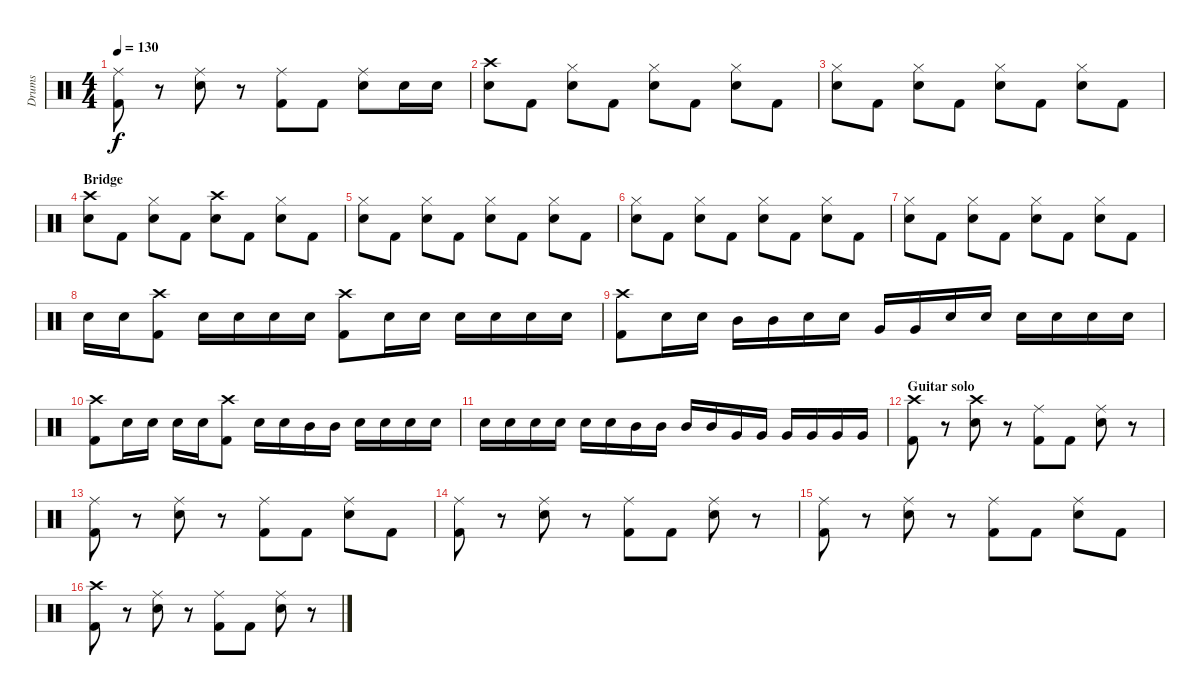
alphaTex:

\track ("Drums" "Drums") {instrument percussion}
\staff {score}
\articulation defaults
\ts (4 4)
\tempo 130
\clef neutral
\ks c
("Ride (middle)" "Kick (hit) 2").8{dy f} r.8 ("Ride (middle)" "Electric Snare (hit)").8 r.8 ("Ride (middle)" "Kick (hit) 2").8 "Kick (hit) 2".8 ("Ride (middle)" "Electric Snare (hit)").8 "Electric Snare (hit)".16 "Electric Snare (hit)".16 |
("Crash high (hit)" "Electric Snare (hit)").8 "Kick (hit) 2".8 ("Hi-Hat (closed)" "Electric Snare (hit)").8 "Kick (hit) 2".8 ("Hi-Hat (closed)" "Electric Snare (hit)").8 "Kick (hit) 2".8 ("Hi-Hat (closed)" "Electric Snare (hit)").8 "Kick (hit) 2".8 |
("Hi-Hat (closed)" "Electric Snare (hit)").8 "Kick (hit) 2".8 ("Hi-Hat (closed)" "Electric Snare (hit)").8 "Kick (hit) 2".8 ("Hi-Hat (closed)" "Electric Snare (hit)").8 "Kick (hit) 2".8 ("Hi-Hat (closed)" "Electric Snare (hit)").8 "Kick (hit) 2".8 |
\section ("" "Bridge")
("Crash high (hit)" "Electric Snare (hit)").8 "Kick (hit) 2".8 ("Hi-Hat (closed)" "Electric Snare (hit)").8 "Kick (hit) 2".8 ("Crash high (hit)" "Electric Snare (hit)").8 "Kick (hit) 2".8 ("Hi-Hat (closed)" "Electric Snare (hit)").8 "Kick (hit) 2".8 |
("Hi-Hat (closed)" "Electric Snare (hit)").8 "Kick (hit) 2".8 ("Hi-Hat (closed)" "Electric Snare (hit)").8 "Kick (hit) 2".8 ("Hi-Hat (closed)" "Electric Snare (hit)").8 "Kick (hit) 2".8 ("Hi-Hat (closed)" "Electric Snare (hit)").8 "Kick (hit) 2".8 |
("Hi-Hat (closed)" "Electric Snare (hit)").8 "Kick (hit) 2".8 ("Hi-Hat (closed)" "Electric Snare (hit)").8 "Kick (hit) 2".8 ("Hi-Hat (closed)" "Electric Snare (hit)").8 "Kick (hit) 2".8 ("Hi-Hat (closed)" "Electric Snare (hit)").8 "Kick (hit) 2".8 |
("Hi-Hat (closed)" "Electric Snare (hit)").8 "Kick (hit) 2".8 ("Hi-Hat (closed)" "Electric Snare (hit)").8 "Kick (hit) 2".8 ("Hi-Hat (closed)" "Electric Snare (hit)").8 "Kick (hit) 2".8 ("Hi-Hat (closed)" "Electric Snare (hit)").8 "Kick (hit) 2".8 |
"Electric Snare (hit)".16 "Electric Snare (hit)".16 ("Crash high (hit)" "Kick (hit) 2").8 "Electric Snare (hit)".16 "Electric Snare (hit)".16 "Electric Snare (hit)".16 "Electric Snare (hit)".16 ("Crash high (hit)" "Kick (hit) 2").8 "Electric Snare (hit)".16 "Electric Snare (hit)".16 "Electric Snare (hit)".16 "Electric Snare (hit)".16 "Electric Snare (hit)".16 "Electric Snare (hit)".16 |
("Crash high (hit)" "Kick (hit) 2").8 "Electric Snare (hit)".16 "Electric Snare (hit)".16 "Mid Tom (hit)".16 "Mid Tom (hit)".16 "Electric Snare (hit)".16 "Electric Snare (hit)".16 "Very Low Tom (hit)".16 "Very Low Tom (hit)".16 "Electric Snare (hit)".16 "Electric Snare (hit)".16 "Electric Snare (hit)".16 "Electric Snare (hit)".16 "Electric Snare (hit)".16 "Electric Snare (hit)".16 |
("Crash high (hit)" "Kick (hit) 2").8 "Electric Snare (hit)".16 "Electric Snare (hit)".16 "Electric Snare (hit)".16 "Electric Snare (hit)".16 ("Crash high (hit)" "Kick (hit) 2").8 "Electric Snare (hit)".16 "Electric Snare (hit)".16 "Mid Tom (hit)".16 "Mid Tom (hit)".16 "Electric Snare (hit)".16 "Electric Snare (hit)".16 "Electric Snare (hit)".16 "Electric Snare (hit)".16 |
"Electric Snare (hit)".16 "Electric Snare (hit)".16 "Electric Snare (hit)".16 "Electric Snare (hit)".16 "Electric Snare (hit)".16 "Electric Snare (hit)".16 "Mid Tom (hit)".16 "Mid Tom (hit)".16 "Mid Tom (hit)".16 "Mid Tom (hit)".16 "Very Low Tom (hit)".16 "Very Low Tom (hit)".16 "Very Low Tom (hit)".16 "Very Low Tom (hit)".16 "Very Low Tom (hit)".16 "Very Low Tom (hit)".16 |
\section ("" "Guitar solo")
("Crash high (hit)" "Kick (hit) 2").8 r.8 ("Crash high (hit)" "Electric Snare (hit)").8 r.8 ("Ride (middle)" "Kick (hit) 2").8 "Kick (hit) 2".8 ("Ride (middle)" "Electric Snare (hit)").8 r.8 |
("Ride (middle)" "Kick (hit) 2").8 r.8 ("Ride (middle)" "Electric Snare (hit)").8 r.8 ("Ride (middle)" "Kick (hit) 2").8 "Kick (hit) 2".8 ("Ride (middle)" "Electric Snare (hit)").8 "Kick (hit) 2".8 |
("Ride (middle)" "Kick (hit) 2").8 r.8 ("Ride (middle)" "Electric Snare (hit)").8 r.8 ("Ride (middle)" "Kick (hit) 2").8 "Kick (hit) 2".8 ("Ride (middle)" "Electric Snare (hit)").8 r.8 |
("Ride (middle)" "Kick (hit) 2").8 r.8 ("Ride (middle)" "Electric Snare (hit)").8 r.8 ("Ride (middle)" "Kick (hit) 2").8 "Kick (hit) 2".8 ("Ride (middle)" "Electric Snare (hit)").8 "Kick (hit) 2".8 |
("Crash high (hit)" "Kick (hit) 2").8 r.8 ("Ride (middle)" "Electric Snare (hit)").8 r.8 ("Ride (middle)" "Kick (hit) 2").8 "Kick (hit) 2".8 ("Ride (middle)" "Electric Snare (hit)").8 r.8
